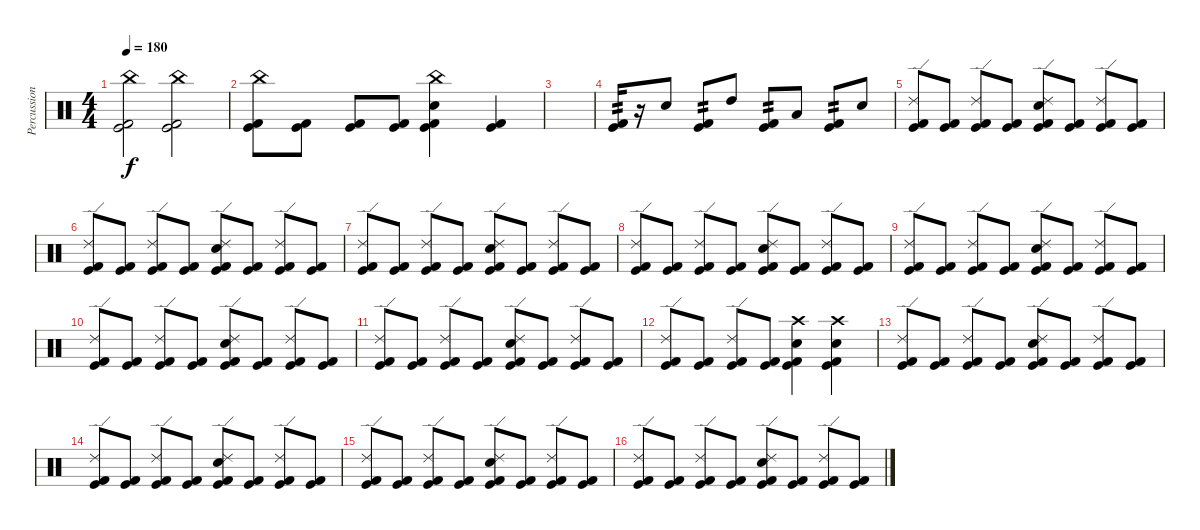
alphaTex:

\track ("Percussion" "Percussion") {instrument percussion}
\staff {score}
\articulation defaults
\ts (4 4)
\tempo 180
\clef neutral
\ks c
("China (hit)" "Kick (hit)" "Kick (hit) 2").2{dy f} ("China (hit)" "Kick (hit)" "Kick (hit) 2").2 |
("China (hit)" "Kick (hit)" "Kick (hit) 2").8 ("Kick (hit)" "Kick (hit) 2").8 ("Kick (hit)" "Kick (hit) 2").8 ("Kick (hit)" "Kick (hit) 2").8 ("China (hit)" "Snare (hit) 2" "Kick (hit)" "Kick (hit) 2").4 ("Kick (hit)" "Kick (hit) 2").4 |
|
("Kick (hit)" "Kick (hit) 2").16{tp 2} r.16 "Snare (hit) 2".8 ("Kick (hit)" "Kick (hit) 2").8{tp 2} "High Tom (hit)".8 ("Kick (hit)" "Kick (hit) 2").8{tp 2} "Low Tom (hit)".8 ("Kick (hit)" "Kick (hit) 2").8{tp 2} "Snare (hit) 2".8 |
("Ride (edge) 2" "Kick (hit)" "Kick (hit) 2").8 ("Kick (hit)" "Kick (hit) 2").8 ("Ride (edge) 2" "Kick (hit)" "Kick (hit) 2").8 ("Kick (hit)" "Kick (hit) 2").8 ("Ride (edge) 2" "Snare (hit) 2" "Kick (hit)" "Kick (hit) 2").8 ("Kick (hit)" "Kick (hit) 2").8 ("Ride (edge) 2" "Kick (hit)" "Kick (hit) 2").8 ("Kick (hit)" "Kick (hit) 2").8 |
("Ride (edge) 2" "Kick (hit)" "Kick (hit) 2").8 ("Kick (hit)" "Kick (hit) 2").8 ("Ride (edge) 2" "Kick (hit)" "Kick (hit) 2").8 ("Kick (hit)" "Kick (hit) 2").8 ("Ride (edge) 2" "Snare (hit) 2" "Kick (hit)" "Kick (hit) 2").8 ("Kick (hit)" "Kick (hit) 2").8 ("Ride (edge) 2" "Kick (hit)" "Kick (hit) 2").8 ("Kick (hit)" "Kick (hit) 2").8 |
("Ride (edge) 2" "Kick (hit)" "Kick (hit) 2").8 ("Kick (hit)" "Kick (hit) 2").8 ("Ride (edge) 2" "Kick (hit)" "Kick (hit) 2").8 ("Kick (hit)" "Kick (hit) 2").8 ("Ride (edge) 2" "Snare (hit) 2" "Kick (hit)" "Kick (hit) 2").8 ("Kick (hit)" "Kick (hit) 2").8 ("Ride (edge) 2" "Kick (hit)" "Kick (hit) 2").8 ("Kick (hit)" "Kick (hit) 2").8 |
("Ride (edge) 2" "Kick (hit)" "Kick (hit) 2").8 ("Kick (hit)" "Kick (hit) 2").8 ("Ride (edge) 2" "Kick (hit)" "Kick (hit) 2").8 ("Kick (hit)" "Kick (hit) 2").8 ("Ride (edge) 2" "Snare (hit) 2" "Kick (hit)" "Kick (hit) 2").8 ("Kick (hit)" "Kick (hit) 2").8 ("Ride (edge) 2" "Kick (hit)" "Kick (hit) 2").8 ("Kick (hit)" "Kick (hit) 2").8 |
("Ride (edge) 2" "Kick (hit)" "Kick (hit) 2").8 ("Kick (hit)" "Kick (hit) 2").8 ("Ride (edge) 2" "Kick (hit)" "Kick (hit) 2").8 ("Kick (hit)" "Kick (hit) 2").8 ("Ride (edge) 2" "Snare (hit) 2" "Kick (hit)" "Kick (hit) 2").8 ("Kick (hit)" "Kick (hit) 2").8 ("Ride (edge) 2" "Kick (hit)" "Kick (hit) 2").8 ("Kick (hit)" "Kick (hit) 2").8 |
("Ride (edge) 2" "Kick (hit)" "Kick (hit) 2").8 ("Kick (hit)" "Kick (hit) 2").8 ("Ride (edge) 2" "Kick (hit)" "Kick (hit) 2").8 ("Kick (hit)" "Kick (hit) 2").8 ("Ride (edge) 2" "Snare (hit) 2" "Kick (hit)" "Kick (hit) 2").8 ("Kick (hit)" "Kick (hit) 2").8 ("Ride (edge) 2" "Kick (hit)" "Kick (hit) 2").8 ("Kick (hit)" "Kick (hit) 2").8 |
("Ride (edge) 2" "Kick (hit)" "Kick (hit) 2").8 ("Kick (hit)" "Kick (hit) 2").8 ("Ride (edge) 2" "Kick (hit)" "Kick (hit) 2").8 ("Kick (hit)" "Kick (hit) 2").8 ("Ride (edge) 2" "Snare (hit) 2" "Kick (hit)" "Kick (hit) 2").8 ("Kick (hit)" "Kick (hit) 2").8 ("Ride (edge) 2" "Kick (hit)" "Kick (hit) 2").8 ("Kick (hit)" "Kick (hit) 2").8 |
("Ride (edge) 2" "Kick (hit)" "Kick (hit) 2").8 ("Kick (hit)" "Kick (hit) 2").8 ("Ride (edge) 2" "Kick (hit)" "Kick (hit) 2").8 ("Kick (hit)" "Kick (hit) 2").8 ("Crash high (hit)" "Snare (hit) 2" "Kick (hit)" "Kick (hit) 2").4 ("Crash high (hit)" "Snare (hit) 2" "Kick (hit)" "Kick (hit) 2").4 |
("Ride (edge) 2" "Kick (hit)" "Kick (hit) 2").8 ("Kick (hit)" "Kick (hit) 2").8 ("Ride (edge) 2" "Kick (hit)" "Kick (hit) 2").8 ("Kick (hit)" "Kick (hit) 2").8 ("Ride (edge) 2" "Snare (hit) 2" "Kick (hit)" "Kick (hit) 2").8 ("Kick (hit)" "Kick (hit) 2").8 ("Ride (edge) 2" "Kick (hit)" "Kick (hit) 2").8 ("Kick (hit)" "Kick (hit) 2").8 |
("Ride (edge) 2" "Kick (hit)" "Kick (hit) 2").8 ("Kick (hit)" "Kick (hit) 2").8 ("Ride (edge) 2" "Kick (hit)" "Kick (hit) 2").8 ("Kick (hit)" "Kick (hit) 2").8 ("Ride (edge) 2" "Snare (hit) 2" "Kick (hit)" "Kick (hit) 2").8 ("Kick (hit)" "Kick (hit) 2").8 ("Ride (edge) 2" "Kick (hit)" "Kick (hit) 2").8 ("Kick (hit)" "Kick (hit) 2").8 |
("Ride (edge) 2" "Kick (hit)" "Kick (hit) 2").8 ("Kick (hit)" "Kick (hit) 2").8 ("Ride (edge) 2" "Kick (hit)" "Kick (hit) 2").8 ("Kick (hit)" "Kick (hit) 2").8 ("Ride (edge) 2" "Snare (hit) 2" "Kick (hit)" "Kick (hit) 2").8 ("Kick (hit)" "Kick (hit) 2").8 ("Ride (edge) 2" "Kick (hit)" "Kick (hit) 2").8 ("Kick (hit)" "Kick (hit) 2").8 |
("Ride (edge) 2" "Kick (hit)" "Kick (hit) 2").8 ("Kick (hit)" "Kick (hit) 2").8 ("Ride (edge) 2" "Kick (hit)" "Kick (hit) 2").8 ("Kick (hit)" "Kick (hit) 2").8 ("Ride (edge) 2" "Snare (hit) 2" "Kick (hit)" "Kick (hit) 2").8 ("Kick (hit)" "Kick (hit) 2").8 ("Ride (edge) 2" "Kick (hit)" "Kick (hit) 2").8 ("Kick (hit)" "Kick (hit) 2").8
